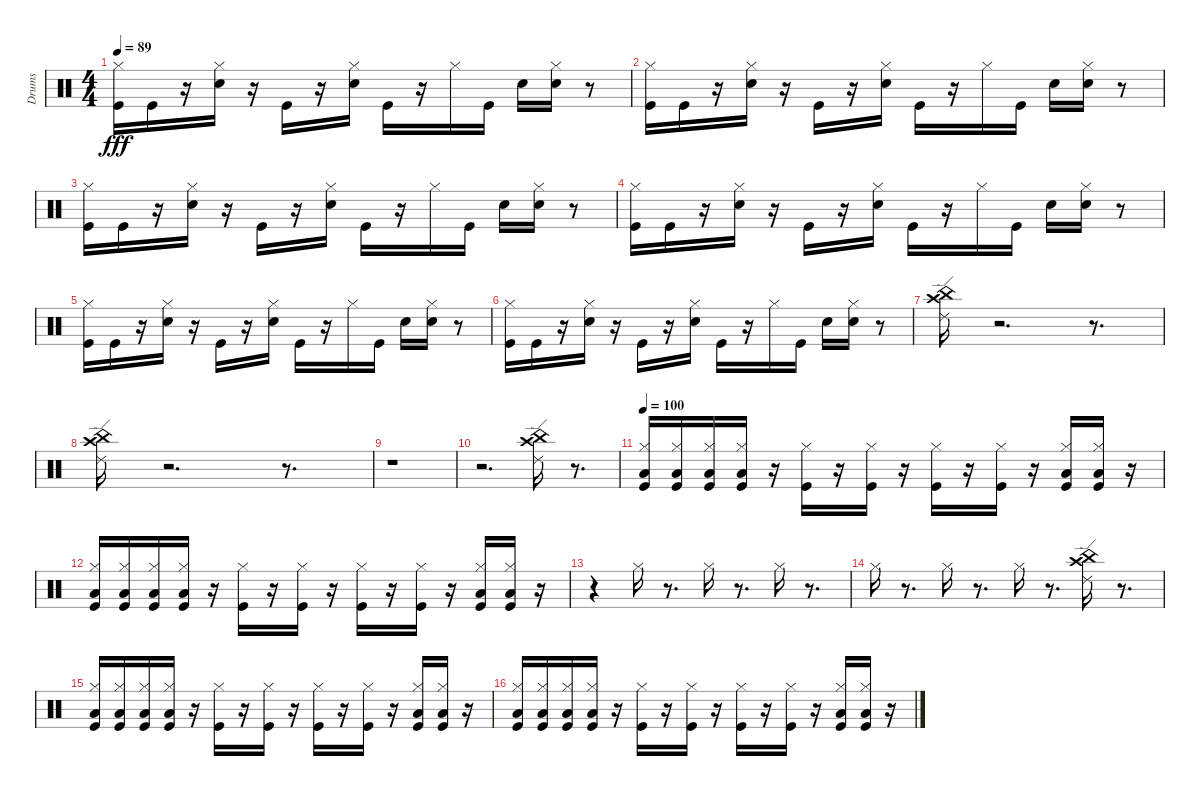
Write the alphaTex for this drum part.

\track ("Drums" "Drums") {instrument percussion}
\staff {score}
\articulation defaults
\ts (4 4)
\tempo 89
\clef neutral
\ks c
("Kick (hit)" "Hi-Hat (closed)").16{dy fff} "Kick (hit)".16 r.16 ("Electric Snare (hit)" "Hi-Hat (closed)").16 r.16 "Kick (hit)".16 r.16 ("Electric Snare (hit)" "Hi-Hat (closed)").16 "Kick (hit)".16 r.16 "Hi-Hat (closed)".16 "Kick (hit)".16 "Electric Snare (hit)".16 ("Electric Snare (hit)" "Hi-Hat (closed)").16 r.8 |
("Kick (hit)" "Hi-Hat (closed)").16 "Kick (hit)".16 r.16 ("Electric Snare (hit)" "Hi-Hat (closed)").16 r.16 "Kick (hit)".16 r.16 ("Electric Snare (hit)" "Hi-Hat (closed)").16 "Kick (hit)".16 r.16 "Hi-Hat (closed)".16 "Kick (hit)".16 "Electric Snare (hit)".16 ("Electric Snare (hit)" "Hi-Hat (closed)").16 r.8 |
("Kick (hit)" "Hi-Hat (closed)").16 "Kick (hit)".16 r.16 ("Electric Snare (hit)" "Hi-Hat (closed)").16 r.16 "Kick (hit)".16 r.16 ("Electric Snare (hit)" "Hi-Hat (closed)").16 "Kick (hit)".16 r.16 "Hi-Hat (closed)".16 "Kick (hit)".16 "Electric Snare (hit)".16 ("Electric Snare (hit)" "Hi-Hat (closed)").16 r.8 |
("Kick (hit)" "Hi-Hat (closed)").16 "Kick (hit)".16 r.16 ("Electric Snare (hit)" "Hi-Hat (closed)").16 r.16 "Kick (hit)".16 r.16 ("Electric Snare (hit)" "Hi-Hat (closed)").16 "Kick (hit)".16 r.16 "Hi-Hat (closed)".16 "Kick (hit)".16 "Electric Snare (hit)".16 ("Electric Snare (hit)" "Hi-Hat (closed)").16 r.8 |
("Kick (hit)" "Hi-Hat (closed)").16 "Kick (hit)".16 r.16 ("Electric Snare (hit)" "Hi-Hat (closed)").16 r.16 "Kick (hit)".16 r.16 ("Electric Snare (hit)" "Hi-Hat (closed)").16 "Kick (hit)".16 r.16 "Hi-Hat (closed)".16 "Kick (hit)".16 "Electric Snare (hit)".16 ("Electric Snare (hit)" "Hi-Hat (closed)").16 r.8 |
("Kick (hit)" "Hi-Hat (closed)").16 "Kick (hit)".16 r.16 ("Electric Snare (hit)" "Hi-Hat (closed)").16 r.16 "Kick (hit)".16 r.16 ("Electric Snare (hit)" "Hi-Hat (closed)").16 "Kick (hit)".16 r.16 "Hi-Hat (closed)".16 "Kick (hit)".16 "Electric Snare (hit)".16 ("Electric Snare (hit)" "Hi-Hat (closed)").16 r.8 |
("Ride (edge) 2" "China (hit)" "Crash high (hit)").16 r.2{d} r.8{d} |
("Ride (edge) 2" "China (hit)" "Crash high (hit)").16 r.2{d} r.8{d} |
r.1 |
r.2{d} ("Ride (edge) 2" "Crash high (hit)" "China (hit)").16 r.8{d} |
\tempo 100
("Hi-Hat (closed)" "Low Tom (hit)" "Kick (hit)").16 ("Hi-Hat (closed)" "Low Tom (hit)" "Kick (hit)").16 ("Hi-Hat (closed)" "Low Tom (hit)" "Kick (hit)").16 ("Hi-Hat (closed)" "Low Tom (hit)" "Kick (hit)").16 r.16 ("Hi-Hat (closed)" "Kick (hit)").16 r.16 ("Hi-Hat (closed)" "Kick (hit)").16 r.16 ("Hi-Hat (closed)" "Kick (hit)").16 r.16 ("Hi-Hat (closed)" "Kick (hit)").16 r.16 ("Hi-Hat (closed)" "Low Tom (hit)" "Kick (hit)").16 ("Hi-Hat (closed)" "Low Tom (hit)" "Kick (hit)").16 r.16 |
("Hi-Hat (closed)" "Low Tom (hit)" "Kick (hit)").16 ("Hi-Hat (closed)" "Low Tom (hit)" "Kick (hit)").16 ("Hi-Hat (closed)" "Low Tom (hit)" "Kick (hit)").16 ("Hi-Hat (closed)" "Low Tom (hit)" "Kick (hit)").16 r.16 ("Hi-Hat (closed)" "Kick (hit)").16 r.16 ("Hi-Hat (closed)" "Kick (hit)").16 r.16 ("Hi-Hat (closed)" "Kick (hit)").16 r.16 ("Hi-Hat (closed)" "Kick (hit)").16 r.16 ("Hi-Hat (closed)" "Low Tom (hit)" "Kick (hit)").16 ("Hi-Hat (closed)" "Low Tom (hit)" "Kick (hit)").16 r.16 |
r.4 "Hi-Hat (closed)".16 r.8{d} "Hi-Hat (closed)".16 r.8{d} "Hi-Hat (closed)".16 r.8{d} |
"Hi-Hat (closed)".16 r.8{d} "Hi-Hat (closed)".16 r.8{d} "Hi-Hat (closed)".16 r.8{d} ("Ride (edge) 2" "Crash high (hit)" "China (hit)").16 r.8{d} |
("Hi-Hat (closed)" "Low Tom (hit)" "Kick (hit)").16 ("Hi-Hat (closed)" "Low Tom (hit)" "Kick (hit)").16 ("Hi-Hat (closed)" "Low Tom (hit)" "Kick (hit)").16 ("Hi-Hat (closed)" "Low Tom (hit)" "Kick (hit)").16 r.16 ("Hi-Hat (closed)" "Kick (hit)").16 r.16 ("Hi-Hat (closed)" "Kick (hit)").16 r.16 ("Hi-Hat (closed)" "Kick (hit)").16 r.16 ("Hi-Hat (closed)" "Kick (hit)").16 r.16 ("Hi-Hat (closed)" "Low Tom (hit)" "Kick (hit)").16 ("Hi-Hat (closed)" "Low Tom (hit)" "Kick (hit)").16 r.16 |
("Hi-Hat (closed)" "Low Tom (hit)" "Kick (hit)").16 ("Hi-Hat (closed)" "Low Tom (hit)" "Kick (hit)").16 ("Hi-Hat (closed)" "Low Tom (hit)" "Kick (hit)").16 ("Hi-Hat (closed)" "Low Tom (hit)" "Kick (hit)").16 r.16 ("Hi-Hat (closed)" "Kick (hit)").16 r.16 ("Hi-Hat (closed)" "Kick (hit)").16 r.16 ("Hi-Hat (closed)" "Kick (hit)").16 r.16 ("Hi-Hat (closed)" "Kick (hit)").16 r.16 ("Hi-Hat (closed)" "Low Tom (hit)" "Kick (hit)").16 ("Hi-Hat (closed)" "Low Tom (hit)" "Kick (hit)").16 r.16
